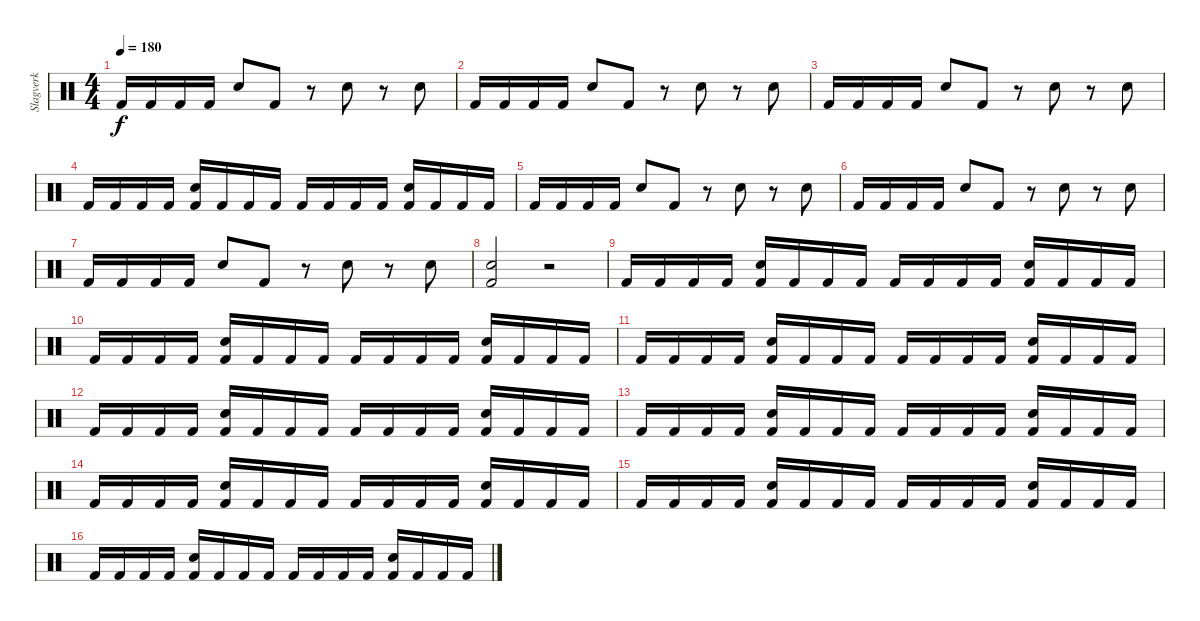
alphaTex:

\track ("Slagverk" "Slagverk") {instrument percussion}
\staff {score}
\articulation defaults
\ts (4 4)
\tempo 180
\clef neutral
\ks c "Kick (hit) 2".16{dy f} "Kick (hit) 2".16 "Kick (hit) 2".16 "Kick (hit) 2".16 "Electric Snare (hit)".8 "Kick (hit) 2".8
r.8 "Electric Snare (hit)".8 r.8 "Electric Snare (hit)".8 |
"Kick (hit) 2".16 "Kick (hit) 2".16 "Kick (hit) 2".16 "Kick (hit) 2".16 "Electric Snare (hit)".8 "Kick (hit) 2".8 r.8 "Electric Snare (hit)".8 r.8 "Electric Snare (hit)".8 |
"Kick (hit) 2".16 "Kick (hit) 2".16 "Kick (hit) 2".16 "Kick (hit) 2".16 "Electric Snare (hit)".8 "Kick (hit) 2".8 r.8 "Electric Snare (hit)".8 r.8 "Electric Snare (hit)".8 |
"Kick (hit) 2".16 "Kick (hit) 2".16 "Kick (hit) 2".16 "Kick (hit) 2".16 ("Electric Snare (hit)" "Kick (hit) 2").16 "Kick (hit) 2".16 "Kick (hit) 2".16 "Kick (hit) 2".16 "Kick (hit) 2".16 "Kick (hit) 2".16 "Kick (hit) 2".16 "Kick (hit) 2".16 ("Electric Snare (hit)" "Kick (hit) 2").16 "Kick (hit) 2".16 "Kick (hit) 2".16 "Kick (hit) 2".16 |
"Kick (hit) 2".16 "Kick (hit) 2".16 "Kick (hit) 2".16 "Kick (hit) 2".16 "Electric Snare (hit)".8 "Kick (hit) 2".8 r.8 "Electric Snare (hit)".8 r.8 "Electric Snare (hit)".8 |
"Kick (hit) 2".16 "Kick (hit) 2".16 "Kick (hit) 2".16 "Kick (hit) 2".16 "Electric Snare (hit)".8 "Kick (hit) 2".8 r.8 "Electric Snare (hit)".8 r.8 "Electric Snare (hit)".8 |
"Kick (hit) 2".16 "Kick (hit) 2".16 "Kick (hit) 2".16 "Kick (hit) 2".16 "Electric Snare (hit)".8 "Kick (hit) 2".8 r.8 "Electric Snare (hit)".8 r.8 "Electric Snare (hit)".8 |
("Electric Snare (hit)" "Kick (hit) 2").2 r.2 |
"Kick (hit) 2".16 "Kick (hit) 2".16 "Kick (hit) 2".16 "Kick (hit) 2".16 ("Electric Snare (hit)" "Kick (hit) 2").16 "Kick (hit) 2".16 "Kick (hit) 2".16 "Kick (hit) 2".16 "Kick (hit) 2".16 "Kick (hit) 2".16 "Kick (hit) 2".16 "Kick (hit) 2".16 ("Electric Snare (hit)" "Kick (hit) 2").16 "Kick (hit) 2".16 "Kick (hit) 2".16 "Kick (hit) 2".16 |
"Kick (hit) 2".16 "Kick (hit) 2".16 "Kick (hit) 2".16 "Kick (hit) 2".16 ("Electric Snare (hit)" "Kick (hit) 2").16 "Kick (hit) 2".16 "Kick (hit) 2".16 "Kick (hit) 2".16 "Kick (hit) 2".16 "Kick (hit) 2".16 "Kick (hit) 2".16 "Kick (hit) 2".16 ("Electric Snare (hit)" "Kick (hit) 2").16 "Kick (hit) 2".16 "Kick (hit) 2".16 "Kick (hit) 2".16 |
"Kick (hit) 2".16 "Kick (hit) 2".16 "Kick (hit) 2".16 "Kick (hit) 2".16 ("Electric Snare (hit)" "Kick (hit) 2").16 "Kick (hit) 2".16 "Kick (hit) 2".16 "Kick (hit) 2".16 "Kick (hit) 2".16 "Kick (hit) 2".16 "Kick (hit) 2".16 "Kick (hit) 2".16 ("Electric Snare (hit)" "Kick (hit) 2").16 "Kick (hit) 2".16 "Kick (hit) 2".16 "Kick (hit) 2".16 |
"Kick (hit) 2".16 "Kick (hit) 2".16 "Kick (hit) 2".16 "Kick (hit) 2".16 ("Electric Snare (hit)" "Kick (hit) 2").16 "Kick (hit) 2".16 "Kick (hit) 2".16 "Kick (hit) 2".16 "Kick (hit) 2".16 "Kick (hit) 2".16 "Kick (hit) 2".16 "Kick (hit) 2".16 ("Electric Snare (hit)" "Kick (hit) 2").16 "Kick (hit) 2".16 "Kick (hit) 2".16 "Kick (hit) 2".16 |
"Kick (hit) 2".16 "Kick (hit) 2".16 "Kick (hit) 2".16 "Kick (hit) 2".16 ("Electric Snare (hit)" "Kick (hit) 2").16 "Kick (hit) 2".16 "Kick (hit) 2".16 "Kick (hit) 2".16 "Kick (hit) 2".16 "Kick (hit) 2".16 "Kick (hit) 2".16 "Kick (hit) 2".16 ("Electric Snare (hit)" "Kick (hit) 2").16 "Kick (hit) 2".16 "Kick (hit) 2".16 "Kick (hit) 2".16 |
"Kick (hit) 2".16 "Kick (hit) 2".16 "Kick (hit) 2".16 "Kick (hit) 2".16 ("Electric Snare (hit)" "Kick (hit) 2").16 "Kick (hit) 2".16 "Kick (hit) 2".16 "Kick (hit) 2".16 "Kick (hit) 2".16 "Kick (hit) 2".16 "Kick (hit) 2".16 "Kick (hit) 2".16 ("Electric Snare (hit)" "Kick (hit) 2").16 "Kick (hit) 2".16 "Kick (hit) 2".16 "Kick (hit) 2".16 |
"Kick (hit) 2".16 "Kick (hit) 2".16 "Kick (hit) 2".16 "Kick (hit) 2".16 ("Electric Snare (hit)" "Kick (hit) 2").16 "Kick (hit) 2".16 "Kick (hit) 2".16 "Kick (hit) 2".16 "Kick (hit) 2".16 "Kick (hit) 2".16 "Kick (hit) 2".16 "Kick (hit) 2".16 ("Electric Snare (hit)" "Kick (hit) 2").16 "Kick (hit) 2".16 "Kick (hit) 2".16 "Kick (hit) 2".16 |
"Kick (hit) 2".16 "Kick (hit) 2".16 "Kick (hit) 2".16 "Kick (hit) 2".16 ("Electric Snare (hit)" "Kick (hit) 2").16 "Kick (hit) 2".16 "Kick (hit) 2".16 "Kick (hit) 2".16 "Kick (hit) 2".16 "Kick (hit) 2".16 "Kick (hit) 2".16 "Kick (hit) 2".16 ("Electric Snare (hit)" "Kick (hit) 2").16 "Kick (hit) 2".16 "Kick (hit) 2".16 "Kick (hit) 2".16
